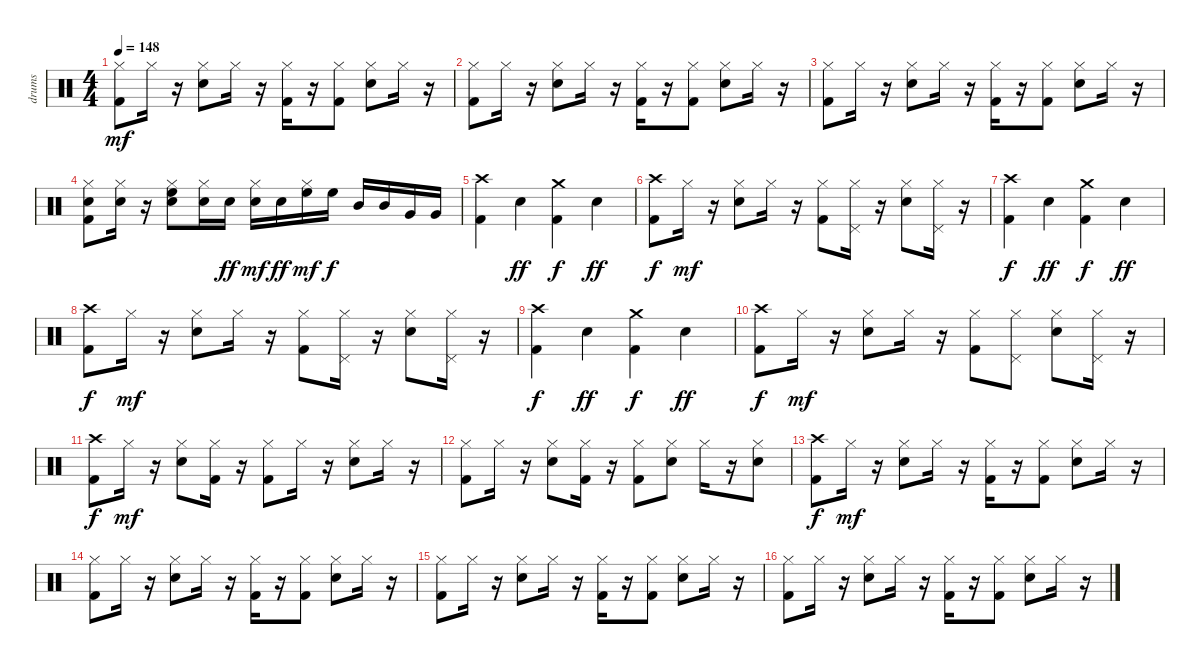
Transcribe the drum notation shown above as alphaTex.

\track ("drums" "drums") {instrument percussion}
\staff {score}
\articulation defaults
\ts (4 4)
\tempo 148
\clef neutral
\ks c
("Hi-Hat (closed)" "Kick (hit) 2").8{dy mf} "Hi-Hat (closed)".16 r.16 ("Snare (hit) 2" "Hi-Hat (closed)").8 "Hi-Hat (closed)".16 r.16 ("Hi-Hat (closed)" "Kick (hit) 2").16 r.16 ("Hi-Hat (closed)" "Kick (hit) 2").8 ("Snare (hit) 2" "Hi-Hat (closed)").8 "Hi-Hat (closed)".16 r.16 |
("Hi-Hat (closed)" "Kick (hit) 2").8 "Hi-Hat (closed)".16 r.16 ("Snare (hit) 2" "Hi-Hat (closed)").8 "Hi-Hat (closed)".16 r.16 ("Hi-Hat (closed)" "Kick (hit) 2").16 r.16 ("Hi-Hat (closed)" "Kick (hit) 2").8 ("Snare (hit) 2" "Hi-Hat (closed)").8 "Hi-Hat (closed)".16 r.16 |
("Hi-Hat (closed)" "Kick (hit) 2").8 "Hi-Hat (closed)".16 r.16 ("Snare (hit) 2" "Hi-Hat (closed)").8 "Hi-Hat (closed)".16 r.16 ("Hi-Hat (closed)" "Kick (hit) 2").16 r.16 ("Hi-Hat (closed)" "Kick (hit) 2").8 ("Snare (hit) 2" "Hi-Hat (closed)").8 "Hi-Hat (closed)".16 r.16 |
("Snare (hit) 2" "Hi-Hat (closed)" "Kick (hit) 2").8 ("Snare (hit) 2" "Hi-Hat (closed)").16 r.16 ("High Floor Tom (hit)" "Snare (hit) 2" "Hi-Hat (closed)").8 ("Snare (hit) 2" "Hi-Hat (closed)").16 "Snare (hit) 2".16{dy ff} ("Snare (hit) 2" "Hi-Hat (closed)").16{dy mf} "Snare (hit) 2".16{dy ff} ("High Floor Tom (hit)" "Hi-Hat (closed)").16{dy mf} "High Floor Tom (hit)".16{dy f} "Mid Tom (hit)".16 "Mid Tom (hit)".16 "Very Low Tom (hit)".16 "Very Low Tom (hit)".16 |
("Crash high (hit)" "Kick (hit) 2").4 "Snare (hit) 2".4{dy ff} ("Kick (hit) 2" "Crash medium (hit)").4{dy f} "Snare (hit) 2".4{dy ff} |
("Crash high (hit)" "Kick (hit) 2").8{dy f} "Hi-Hat (closed)".16{dy mf} r.16 ("Snare (hit) 2" "Hi-Hat (closed)").8 "Hi-Hat (closed)".16 r.16 ("Hi-Hat (closed)" "Kick (hit) 2").8 ("Pedal Hi-Hat (hit)" "Hi-Hat (closed)").16 r.16 ("Snare (hit) 2" "Hi-Hat (closed)").8 ("Pedal Hi-Hat (hit)" "Hi-Hat (closed)").16 r.16 |
("Crash high (hit)" "Kick (hit) 2").4{dy f} "Snare (hit) 2".4{dy ff} ("Crash medium (hit)" "Kick (hit) 2").4{dy f} "Snare (hit) 2".4{dy ff} |
("Crash high (hit)" "Kick (hit) 2").8{dy f} "Hi-Hat (closed)".16{dy mf} r.16 ("Snare (hit) 2" "Hi-Hat (closed)").8 "Hi-Hat (closed)".16 r.16 ("Hi-Hat (closed)" "Kick (hit) 2").8 ("Pedal Hi-Hat (hit)" "Hi-Hat (closed)").16 r.16 ("Snare (hit) 2" "Hi-Hat (closed)").8 ("Pedal Hi-Hat (hit)" "Hi-Hat (closed)").16 r.16 |
("Crash high (hit)" "Kick (hit) 2").4{dy f} "Snare (hit) 2".4{dy ff} ("Crash medium (hit)" "Kick (hit) 2").4{dy f} "Snare (hit) 2".4{dy ff} |
("Crash high (hit)" "Kick (hit) 2").8{dy f} "Hi-Hat (closed)".16{dy mf} r.16 ("Snare (hit) 2" "Hi-Hat (closed)").8 "Hi-Hat (closed)".16 r.16 ("Hi-Hat (closed)" "Kick (hit) 2").8 ("Pedal Hi-Hat (hit)" "Hi-Hat (closed)").8 ("Snare (hit) 2" "Hi-Hat (closed)").8 ("Pedal Hi-Hat (hit)" "Hi-Hat (closed)").16 r.16 |
("Crash high (hit)" "Kick (hit) 2").8{dy f} "Hi-Hat (closed)".16{dy mf} r.16 ("Snare (hit) 2" "Hi-Hat (closed)").8 ("Hi-Hat (closed)" "Kick (hit) 2").16 r.16 ("Hi-Hat (closed)" "Kick (hit) 2").8 "Hi-Hat (closed)".16 r.16 ("Snare (hit) 2" "Hi-Hat (closed)").8 "Hi-Hat (closed)".16 r.16 |
("Hi-Hat (closed)" "Kick (hit) 2").8 "Hi-Hat (closed)".16 r.16 ("Snare (hit) 2" "Hi-Hat (closed)").8 ("Hi-Hat (closed)" "Kick (hit) 2").16 r.16 ("Hi-Hat (closed)" "Kick (hit) 2").8 ("Snare (hit) 2" "Hi-Hat (closed)").8 "Hi-Hat (closed)".16 r.16 ("Snare (hit) 2" "Hi-Hat (closed)").8 |
("Crash high (hit)" "Kick (hit) 2").8{dy f} "Hi-Hat (closed)".16{dy mf} r.16 ("Snare (hit) 2" "Hi-Hat (closed)").8 "Hi-Hat (closed)".16 r.16 ("Hi-Hat (closed)" "Kick (hit) 2").16 r.16 ("Hi-Hat (closed)" "Kick (hit) 2").8 ("Snare (hit) 2" "Hi-Hat (closed)").8 "Hi-Hat (closed)".16 r.16 |
("Hi-Hat (closed)" "Kick (hit) 2").8 "Hi-Hat (closed)".16 r.16 ("Snare (hit) 2" "Hi-Hat (closed)").8 "Hi-Hat (closed)".16 r.16 ("Hi-Hat (closed)" "Kick (hit) 2").16 r.16 ("Hi-Hat (closed)" "Kick (hit) 2").8 ("Snare (hit) 2" "Hi-Hat (closed)").8 "Hi-Hat (closed)".16 r.16 |
("Hi-Hat (closed)" "Kick (hit) 2").8 "Hi-Hat (closed)".16 r.16 ("Snare (hit) 2" "Hi-Hat (closed)").8 "Hi-Hat (closed)".16 r.16 ("Hi-Hat (closed)" "Kick (hit) 2").16 r.16 ("Hi-Hat (closed)" "Kick (hit) 2").8 ("Snare (hit) 2" "Hi-Hat (closed)").8 "Hi-Hat (closed)".16 r.16 |
("Hi-Hat (closed)" "Kick (hit) 2").8 "Hi-Hat (closed)".16 r.16 ("Snare (hit) 2" "Hi-Hat (closed)").8 "Hi-Hat (closed)".16 r.16 ("Hi-Hat (closed)" "Kick (hit) 2").16 r.16 ("Hi-Hat (closed)" "Kick (hit) 2").8 ("Snare (hit) 2" "Hi-Hat (closed)").8 "Hi-Hat (closed)".16 r.16
